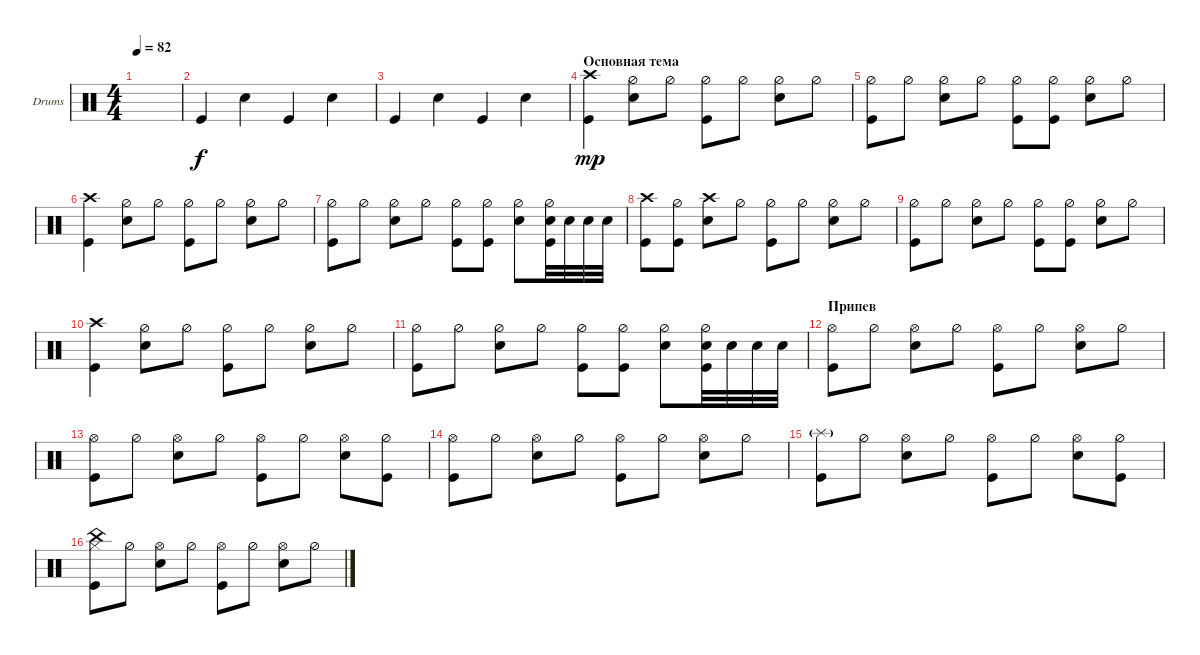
\defaultSystemsLayout 4
\bracketExtendMode groupsimilarinstruments
\firstSystemTrackNameOrientation horizontal
\otherSystemsTrackNameOrientation horizontal
\track ("Drumkit" "Drums") {instrument percussion}
\staff {score}
\articulation defaults
\ts (4 4)
\tempo 82
\clef neutral
\ks c
|
"Kick (hit)".4 "Snare (hit) 2".4 "Kick (hit)".4 "Snare (hit) 2".4 |
"Kick (hit)".4 "Snare (hit) 2".4 "Kick (hit)".4 "Snare (hit) 2".4 |
\section ("" "Основная тема")
("Kick (hit)" "Crash high (hit)").4{dy mp} ("Snare (hit) 2" "Hi-Hat (half)").8 "Hi-Hat (half)".8 ("Kick (hit)" "Hi-Hat (half)").8 "Hi-Hat (half)".8 ("Snare (hit) 2" "Hi-Hat (half)").8 "Hi-Hat (half)".8 |
("Kick (hit)" "Hi-Hat (half)").8 "Hi-Hat (half)".8 ("Snare (hit) 2" "Hi-Hat (half)").8 "Hi-Hat (half)".8 ("Kick (hit)" "Hi-Hat (half)").8 ("Kick (hit)" "Hi-Hat (half)").8 ("Snare (hit) 2" "Hi-Hat (half)").8 "Hi-Hat (half)".8 |
("Kick (hit)" "Crash high (hit)").4 ("Snare (hit) 2" "Hi-Hat (half)").8 "Hi-Hat (half)".8 ("Kick (hit)" "Hi-Hat (half)").8 "Hi-Hat (half)".8 ("Snare (hit) 2" "Hi-Hat (half)").8 "Hi-Hat (half)".8 |
("Kick (hit)" "Hi-Hat (half)").8 "Hi-Hat (half)".8 ("Snare (hit) 2" "Hi-Hat (half)").8 "Hi-Hat (half)".8 ("Kick (hit)" "Hi-Hat (half)").8 ("Kick (hit)" "Hi-Hat (half)").8 ("Snare (hit) 2" "Hi-Hat (half)").8 ("Hi-Hat (half)" "Snare (hit) 2" "Kick (hit)").32 "Snare (hit) 2".32 "Snare (hit) 2".32 "Snare (hit) 2".32 |
("Kick (hit)" "Crash high (hit)").8 ("Kick (hit)" "Hi-Hat (half)").8 ("Snare (hit) 2" "Crash high (hit)").8 "Hi-Hat (half)".8 ("Kick (hit)" "Hi-Hat (half)").8 "Hi-Hat (half)".8 ("Snare (hit) 2" "Hi-Hat (half)").8 "Hi-Hat (half)".8 |
("Kick (hit)" "Hi-Hat (half)").8 "Hi-Hat (half)".8 ("Snare (hit) 2" "Hi-Hat (half)").8 "Hi-Hat (half)".8 ("Kick (hit)" "Hi-Hat (half)").8 ("Kick (hit)" "Hi-Hat (half)").8 ("Snare (hit) 2" "Hi-Hat (half)").8 "Hi-Hat (half)".8 |
("Kick (hit)" "Crash high (hit)").4 ("Snare (hit) 2" "Hi-Hat (half)").8 "Hi-Hat (half)".8 ("Kick (hit)" "Hi-Hat (half)").8 "Hi-Hat (half)".8 ("Snare (hit) 2" "Hi-Hat (half)").8 "Hi-Hat (half)".8 |
("Kick (hit)" "Hi-Hat (half)").8 "Hi-Hat (half)".8 ("Snare (hit) 2" "Hi-Hat (half)").8 "Hi-Hat (half)".8 ("Kick (hit)" "Hi-Hat (half)").8 ("Kick (hit)" "Hi-Hat (half)").8 ("Snare (hit) 2" "Hi-Hat (half)").8 ("Hi-Hat (half)" "Snare (hit) 2" "Kick (hit)").32 "Snare (hit) 2".32 "Snare (hit) 2".32 "Snare (hit) 2".32 |
\section ("" "Припев")
("Kick (hit)" "Hi-Hat (open)").8 "Hi-Hat (half)".8 ("Snare (hit) 2" "Hi-Hat (open)").8 "Hi-Hat (half)".8 ("Kick (hit)" "Hi-Hat (open)").8 "Hi-Hat (half)".8 ("Snare (hit) 2" "Hi-Hat (open)").8 "Hi-Hat (half)".8 |
("Hi-Hat (open)" "Kick (hit)").8 "Hi-Hat (half)".8 ("Hi-Hat (open)" "Snare (hit) 2").8 "Hi-Hat (half)".8 ("Hi-Hat (open)" "Kick (hit)").8 "Hi-Hat (half)".8 ("Hi-Hat (open)" "Snare (hit) 2").8 ("Hi-Hat (half)" "Kick (hit)").8 |
("Hi-Hat (open)" "Kick (hit)").8 "Hi-Hat (half)".8 ("Hi-Hat (open)" "Snare (hit) 2").8 "Hi-Hat (half)".8 ("Hi-Hat (open)" "Kick (hit)").8 "Hi-Hat (half)".8 ("Hi-Hat (open)" "Snare (hit) 2").8 "Hi-Hat (half)".8 |
("Kick (hit)" "Splash (hit)"{g}).8 "Hi-Hat (half)".8 ("Hi-Hat (open)" "Snare (hit) 2").8 "Hi-Hat (half)".8 ("Hi-Hat (open)" "Kick (hit)").8 "Hi-Hat (half)".8 ("Hi-Hat (open)" "Snare (hit) 2").8 ("Hi-Hat (half)" "Kick (hit)").8 |
("Hi-Hat (closed)" "Kick (hit)" "China (hit)").8 "Hi-Hat (half)".8 ("Hi-Hat (open)" "Snare (hit) 2").8 "Hi-Hat (half)".8 ("Hi-Hat (open)" "Kick (hit)").8 "Hi-Hat (half)".8 ("Hi-Hat (open)" "Snare (hit) 2").8 "Hi-Hat (half)".8
